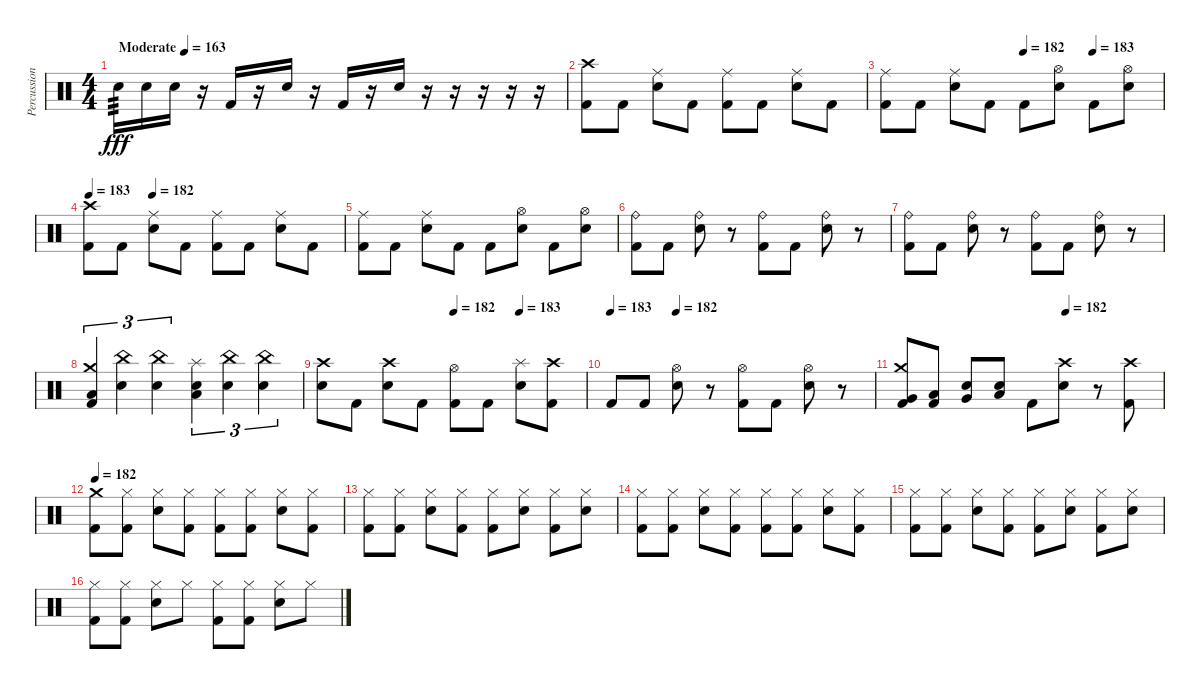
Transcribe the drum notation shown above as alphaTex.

\track ("Percussion" "Percussion") {instrument percussion}
\staff {score}
\articulation defaults
\ts (4 4)
\tempo (163 "Moderate")
\tempo 182
\tempo (163 "Moderate")
\clef neutral
\ks c "Snare (hit) 2".16{tp 3 dy fff} "Snare (hit) 2".16 "Snare (hit) 2".16
r.16 "Kick (hit) 2".16 r.16 "Snare (hit) 2".16 r.16 "Kick (hit) 2".16 r.16 "Snare (hit) 2".16 r.16 r.16 r.16 r.16 r.16 |
("Crash high (hit)" "Kick (hit) 2").8 "Kick (hit) 2".8 ("Ride (middle)" "Snare (hit) 2").8 "Kick (hit) 2".8 ("Ride (middle)" "Kick (hit) 2").8 "Kick (hit) 2".8 ("Ride (middle)" "Snare (hit) 2").8 "Kick (hit) 2".8 |
\tempo (182 0.5)
\tempo (183 0.75)
("Ride (middle)" "Kick (hit) 2").8 "Kick (hit) 2".8 ("Ride (middle)" "Snare (hit) 2").8 "Kick (hit) 2".8 "Kick (hit) 2".8 ("Hi-Hat (open)" "Snare (hit) 2").8 "Kick (hit) 2".8 ("Hi-Hat (open)" "Snare (hit) 2").8 |
\tempo 183
\tempo (182 0.25)
("Crash high (hit)" "Kick (hit) 2").8 "Kick (hit) 2".8 ("Ride (middle)" "Snare (hit) 2").8 "Kick (hit) 2".8 ("Ride (middle)" "Kick (hit) 2").8 "Kick (hit) 2".8 ("Ride (middle)" "Snare (hit) 2").8 "Kick (hit) 2".8 |
("Ride (middle)" "Kick (hit) 2").8 "Kick (hit) 2".8 ("Ride (middle)" "Snare (hit) 2").8 "Kick (hit) 2".8 "Kick (hit) 2".8 ("Hi-Hat (open)" "Snare (hit) 2").8 "Kick (hit) 2".8 ("Hi-Hat (open)" "Snare (hit) 2").8 |
("Ride (bell)" "Kick (hit) 2").8 "Kick (hit) 2".8 ("Ride (bell)" "Snare (hit) 2").8 r.8 ("Ride (bell)" "Kick (hit) 2").8 "Kick (hit) 2".8 ("Ride (bell)" "Snare (hit) 2").8 r.8 |
("Ride (bell)" "Kick (hit) 2").8 "Kick (hit) 2".8 ("Ride (bell)" "Snare (hit) 2").8 r.8 ("Ride (bell)" "Kick (hit) 2").8 "Kick (hit) 2".8 ("Ride (bell)" "Snare (hit) 2").8 r.8 |
("Crash medium (hit)" "Low Tom (hit)" "Kick (hit) 2").4{tu (3 2)} ("China (hit)" "Snare (hit) 2").4{tu (3 2)} ("China (hit)" "Snare (hit) 2").4{tu (3 2)} ("Splash (hit)" "Low Floor Tom (hit)" "Snare (hit) 2").4{tu (3 2)} ("China (hit)" "Snare (hit) 2").4{tu (3 2)} ("China (hit)" "Snare (hit) 2").4{tu (3 2)} |
\tempo (182 0.5)
\tempo (183 0.75)
("Crash high (hit)" "Snare (hit) 2").8 "Kick (hit) 2".8 ("Crash high (hit)" "Snare (hit) 2").8 "Kick (hit) 2".8 ("Hi-Hat (open)" "Kick (hit) 2").8 "Kick (hit) 2".8 ("Splash (hit)" "Snare (hit) 2").8 ("Crash high (hit)" "Kick (hit) 2").8 |
\tempo 183
\tempo (182 0.25)
"Kick (hit) 2".8 "Kick (hit) 2".8 ("Hi-Hat (open)" "Snare (hit) 2").8 r.8 ("Hi-Hat (open)" "Kick (hit) 2").8 "Kick (hit) 2".8 ("Hi-Hat (open)" "Snare (hit) 2").8 r.8 |
\tempo (182 0.625)
("Crash medium (hit)" "Very Low Tom (hit)" "Kick (hit) 2").8 ("Low Floor Tom (hit)" "Kick (hit) 2").8 ("Very Low Tom (hit)" "Snare (hit) 2").8 ("Low Tom (hit)" "Snare (hit) 2").8 "Kick (hit) 2".8 ("Crash high (hit)" "Snare (hit) 2").8 r.8 ("Crash high (hit)" "Kick (hit) 2").8 |
\tempo 182
("Crash medium (hit)" "Kick (hit) 2").8 ("Hi-Hat (closed)" "Kick (hit) 2").8 ("Hi-Hat (closed)" "Snare (hit) 2").8 ("Hi-Hat (closed)" "Kick (hit) 2").8 ("Hi-Hat (closed)" "Kick (hit) 2").8 ("Hi-Hat (closed)" "Kick (hit) 2").8 ("Hi-Hat (closed)" "Snare (hit) 2").8 ("Hi-Hat (closed)" "Kick (hit) 2").8 |
("Hi-Hat (closed)" "Kick (hit) 2").8 ("Hi-Hat (closed)" "Kick (hit) 2").8 ("Hi-Hat (closed)" "Snare (hit) 2").8 ("Hi-Hat (closed)" "Kick (hit) 2").8 ("Hi-Hat (closed)" "Kick (hit) 2").8 ("Hi-Hat (closed)" "Snare (hit) 2").8 ("Hi-Hat (closed)" "Kick (hit) 2").8 ("Hi-Hat (closed)" "Snare (hit) 2").8 |
("Hi-Hat (closed)" "Kick (hit) 2").8 ("Hi-Hat (closed)" "Kick (hit) 2").8 ("Hi-Hat (closed)" "Snare (hit) 2").8 ("Hi-Hat (closed)" "Kick (hit) 2").8 ("Hi-Hat (closed)" "Kick (hit) 2").8 ("Hi-Hat (closed)" "Kick (hit) 2").8 ("Hi-Hat (closed)" "Snare (hit) 2").8 ("Hi-Hat (closed)" "Kick (hit) 2").8 |
("Hi-Hat (closed)" "Kick (hit) 2").8 ("Hi-Hat (closed)" "Kick (hit) 2").8 ("Hi-Hat (closed)" "Snare (hit) 2").8 ("Hi-Hat (closed)" "Kick (hit) 2").8 ("Hi-Hat (closed)" "Kick (hit) 2").8 ("Hi-Hat (closed)" "Snare (hit) 2").8 ("Hi-Hat (closed)" "Kick (hit) 2").8 ("Hi-Hat (closed)" "Snare (hit) 2").8 |
("Hi-Hat (closed)" "Kick (hit) 2").8 ("Hi-Hat (closed)" "Kick (hit) 2").8 ("Hi-Hat (closed)" "Snare (hit) 2").8 "Hi-Hat (closed)".8 ("Hi-Hat (closed)" "Kick (hit) 2").8 ("Hi-Hat (closed)" "Kick (hit) 2").8 ("Hi-Hat (closed)" "Snare (hit) 2").8 "Hi-Hat (closed)".8
